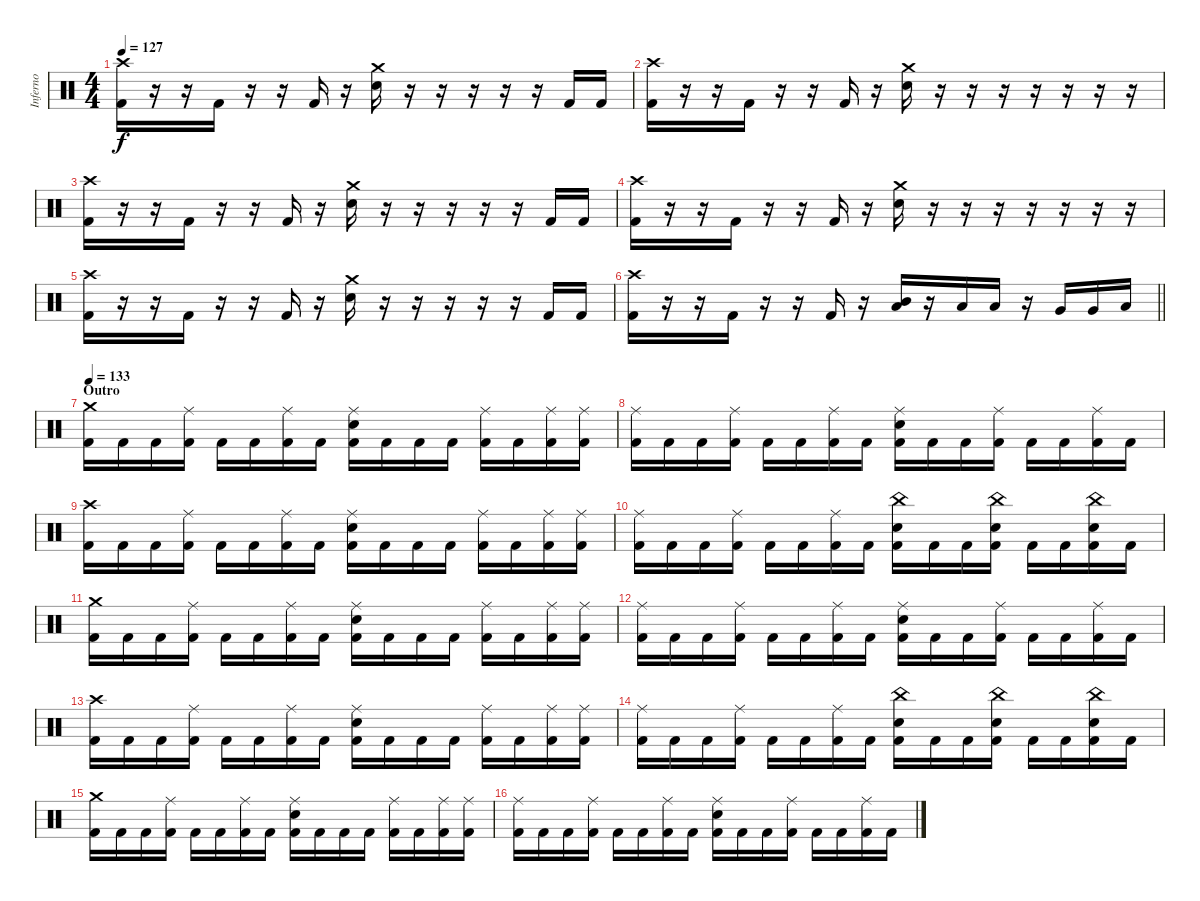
\track ("Inferno" "Inferno") {instrument percussion}
\staff {score}
\articulation defaults
\ts (4 4)
\tempo 127
\clef neutral
\ks c
("Crash high (hit)" "Kick (hit) 2").16{dy f} r.16 r.16 "Kick (hit) 2".16 r.16 r.16 "Kick (hit) 2".16 r.16 ("Crash medium (hit)" "Snare (hit) 2").16 r.16 r.16 r.16 r.16 r.16 "Kick (hit) 2".16 "Kick (hit) 2".16 |
("Crash high (hit)" "Kick (hit) 2").16 r.16 r.16 "Kick (hit) 2".16 r.16 r.16 "Kick (hit) 2".16 r.16 ("Crash medium (hit)" "Snare (hit) 2").16 r.16 r.16 r.16 r.16 r.16 r.16 r.16 |
("Crash high (hit)" "Kick (hit) 2").16 r.16 r.16 "Kick (hit) 2".16 r.16 r.16 "Kick (hit) 2".16 r.16 ("Crash medium (hit)" "Snare (hit) 2").16 r.16 r.16 r.16 r.16 r.16 "Kick (hit) 2".16 "Kick (hit) 2".16 |
("Crash high (hit)" "Kick (hit) 2").16 r.16 r.16 "Kick (hit) 2".16 r.16 r.16 "Kick (hit) 2".16 r.16 ("Crash medium (hit)" "Snare (hit) 2").16 r.16 r.16 r.16 r.16 r.16 r.16 r.16 |
("Crash high (hit)" "Kick (hit) 2").16 r.16 r.16 "Kick (hit) 2".16 r.16 r.16 "Kick (hit) 2".16 r.16 ("Crash medium (hit)" "Snare (hit) 2").16 r.16 r.16 r.16 r.16 r.16 "Kick (hit) 2".16 "Kick (hit) 2".16 |
\barLineRight lightlight
("Crash high (hit)" "Kick (hit) 2").16 r.16 r.16 "Kick (hit) 2".16 r.16 r.16 "Kick (hit) 2".16 r.16 ("Mid Tom (hit)" "Low Tom (hit)").16 r.16 "Low Tom (hit)".16 "Low Tom (hit)".16 r.16 "Very Low Tom (hit)".16 "Very Low Tom (hit)".16 "Low Floor Tom (hit)".16 |
\section ("" "Outro")
\tempo 133
("Crash medium (hit)" "Kick (hit) 2").16 "Kick (hit) 2".16 "Kick (hit) 2".16 ("Ride (middle)" "Kick (hit) 2").16 "Kick (hit) 2".16 "Kick (hit) 2".16 ("Ride (middle)" "Kick (hit) 2").16 "Kick (hit) 2".16 ("Ride (middle)" "Snare (hit) 2" "Kick (hit) 2").16 "Kick (hit) 2".16 "Kick (hit) 2".16 "Kick (hit) 2".16 ("Ride (middle)" "Kick (hit) 2").16 "Kick (hit) 2".16 ("Ride (middle)" "Kick (hit) 2").16 ("Ride (middle)" "Kick (hit) 2").16 |
("Ride (middle)" "Kick (hit) 2").16 "Kick (hit) 2".16 "Kick (hit) 2".16 ("Ride (middle)" "Kick (hit) 2").16 "Kick (hit) 2".16 "Kick (hit) 2".16 ("Ride (middle)" "Kick (hit) 2").16 "Kick (hit) 2".16 ("Ride (middle)" "Snare (hit) 2" "Kick (hit) 2").16 "Kick (hit) 2".16 "Kick (hit) 2".16 ("Ride (middle)" "Kick (hit) 2").16 "Kick (hit) 2".16 "Kick (hit) 2".16 ("Ride (middle)" "Kick (hit) 2").16 "Kick (hit) 2".16 |
("Crash high (hit)" "Kick (hit) 2").16 "Kick (hit) 2".16 "Kick (hit) 2".16 ("Ride (middle)" "Kick (hit) 2").16 "Kick (hit) 2".16 "Kick (hit) 2".16 ("Ride (middle)" "Kick (hit) 2").16 "Kick (hit) 2".16 ("Ride (middle)" "Snare (hit) 2" "Kick (hit) 2").16 "Kick (hit) 2".16 "Kick (hit) 2".16 "Kick (hit) 2".16 ("Ride (middle)" "Kick (hit) 2").16 "Kick (hit) 2".16 ("Ride (middle)" "Kick (hit) 2").16 ("Ride (middle)" "Kick (hit) 2").16 |
("Ride (middle)" "Kick (hit) 2").16 "Kick (hit) 2".16 "Kick (hit) 2".16 ("Ride (middle)" "Kick (hit) 2").16 "Kick (hit) 2".16 "Kick (hit) 2".16 ("Ride (middle)" "Kick (hit) 2").16 "Kick (hit) 2".16 ("China (hit)" "Snare (hit) 2" "Kick (hit) 2").16 "Kick (hit) 2".16 "Kick (hit) 2".16 ("China (hit)" "Snare (hit) 2" "Kick (hit) 2").16 "Kick (hit) 2".16 "Kick (hit) 2".16 ("China (hit)" "Snare (hit) 2" "Kick (hit) 2").16 "Kick (hit) 2".16 |
("Crash medium (hit)" "Kick (hit) 2").16 "Kick (hit) 2".16 "Kick (hit) 2".16 ("Ride (middle)" "Kick (hit) 2").16 "Kick (hit) 2".16 "Kick (hit) 2".16 ("Ride (middle)" "Kick (hit) 2").16 "Kick (hit) 2".16 ("Ride (middle)" "Snare (hit) 2" "Kick (hit) 2").16 "Kick (hit) 2".16 "Kick (hit) 2".16 "Kick (hit) 2".16 ("Ride (middle)" "Kick (hit) 2").16 "Kick (hit) 2".16 ("Ride (middle)" "Kick (hit) 2").16 ("Ride (middle)" "Kick (hit) 2").16 |
("Ride (middle)" "Kick (hit) 2").16 "Kick (hit) 2".16 "Kick (hit) 2".16 ("Ride (middle)" "Kick (hit) 2").16 "Kick (hit) 2".16 "Kick (hit) 2".16 ("Ride (middle)" "Kick (hit) 2").16 "Kick (hit) 2".16 ("Ride (middle)" "Snare (hit) 2" "Kick (hit) 2").16 "Kick (hit) 2".16 "Kick (hit) 2".16 ("Ride (middle)" "Kick (hit) 2").16 "Kick (hit) 2".16 "Kick (hit) 2".16 ("Ride (middle)" "Kick (hit) 2").16 "Kick (hit) 2".16 |
("Crash high (hit)" "Kick (hit) 2").16 "Kick (hit) 2".16 "Kick (hit) 2".16 ("Ride (middle)" "Kick (hit) 2").16 "Kick (hit) 2".16 "Kick (hit) 2".16 ("Ride (middle)" "Kick (hit) 2").16 "Kick (hit) 2".16 ("Ride (middle)" "Snare (hit) 2" "Kick (hit) 2").16 "Kick (hit) 2".16 "Kick (hit) 2".16 "Kick (hit) 2".16 ("Ride (middle)" "Kick (hit) 2").16 "Kick (hit) 2".16 ("Ride (middle)" "Kick (hit) 2").16 ("Ride (middle)" "Kick (hit) 2").16 |
("Ride (middle)" "Kick (hit) 2").16 "Kick (hit) 2".16 "Kick (hit) 2".16 ("Ride (middle)" "Kick (hit) 2").16 "Kick (hit) 2".16 "Kick (hit) 2".16 ("Ride (middle)" "Kick (hit) 2").16 "Kick (hit) 2".16 ("China (hit)" "Snare (hit) 2" "Kick (hit) 2").16 "Kick (hit) 2".16 "Kick (hit) 2".16 ("China (hit)" "Snare (hit) 2" "Kick (hit) 2").16 "Kick (hit) 2".16 "Kick (hit) 2".16 ("China (hit)" "Snare (hit) 2" "Kick (hit) 2").16 "Kick (hit) 2".16 |
("Crash medium (hit)" "Kick (hit) 2").16 "Kick (hit) 2".16 "Kick (hit) 2".16 ("Ride (middle)" "Kick (hit) 2").16 "Kick (hit) 2".16 "Kick (hit) 2".16 ("Ride (middle)" "Kick (hit) 2").16 "Kick (hit) 2".16 ("Ride (middle)" "Snare (hit) 2" "Kick (hit) 2").16 "Kick (hit) 2".16 "Kick (hit) 2".16 "Kick (hit) 2".16 ("Ride (middle)" "Kick (hit) 2").16 "Kick (hit) 2".16 ("Ride (middle)" "Kick (hit) 2").16 ("Ride (middle)" "Kick (hit) 2").16 |
("Ride (middle)" "Kick (hit) 2").16 "Kick (hit) 2".16 "Kick (hit) 2".16 ("Ride (middle)" "Kick (hit) 2").16 "Kick (hit) 2".16 "Kick (hit) 2".16 ("Ride (middle)" "Kick (hit) 2").16 "Kick (hit) 2".16 ("Ride (middle)" "Snare (hit) 2" "Kick (hit) 2").16 "Kick (hit) 2".16 "Kick (hit) 2".16 ("Ride (middle)" "Kick (hit) 2").16 "Kick (hit) 2".16 "Kick (hit) 2".16 ("Ride (middle)" "Kick (hit) 2").16 "Kick (hit) 2".16
